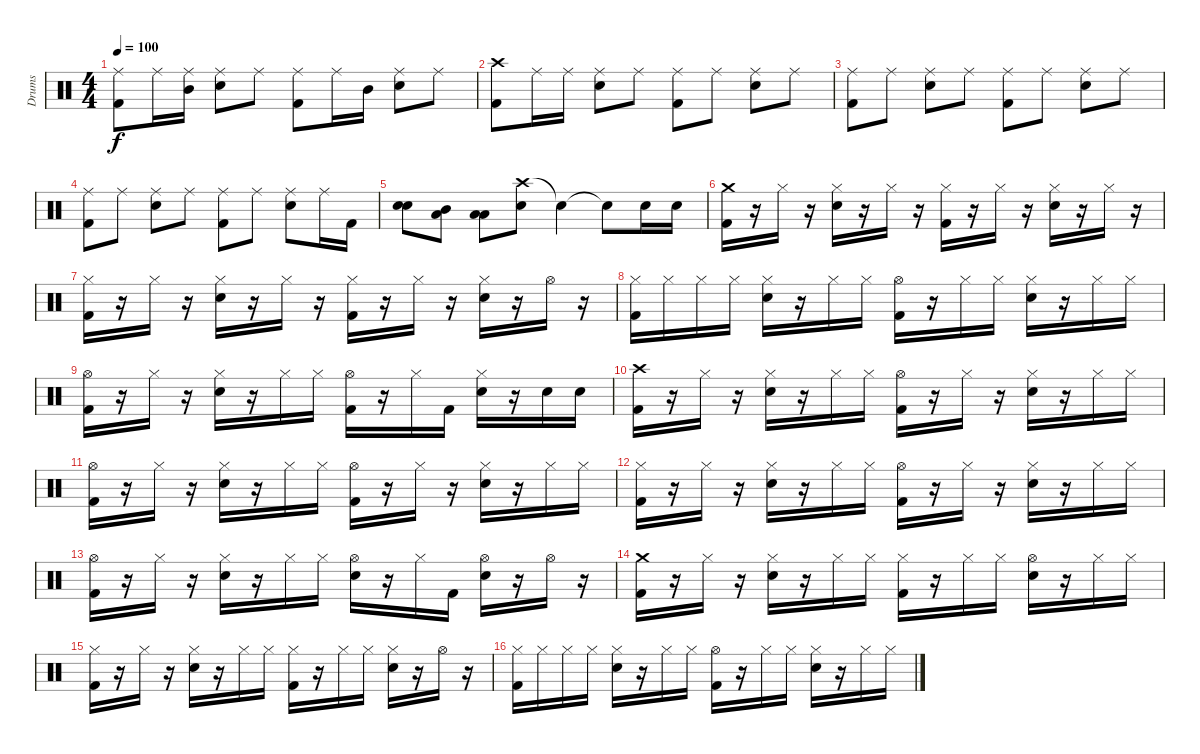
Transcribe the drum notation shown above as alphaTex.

\track ("Drums" "Drums") {instrument percussion}
\staff {score}
\articulation defaults
\ts (4 4)
\tempo 100
\clef neutral
\ks c
("Ride (middle)" "Kick (hit) 2").8{dy f} "Ride (middle)".16 ("Ride (middle)" "Mid Tom (hit)").16 ("Ride (middle)" "Snare (hit) 2").8 "Ride (middle)".8 ("Ride (middle)" "Kick (hit) 2").8 "Ride (middle)".16 "Mid Tom (hit)".16 ("Ride (middle)" "Snare (hit) 2").8 "Ride (middle)".8 |
("Crash high (hit)" "Kick (hit) 2").8 "Ride (middle)".16 "Ride (middle)".16 ("Ride (middle)" "Snare (hit) 2").8 "Ride (middle)".8 ("Ride (middle)" "Kick (hit) 2").8 "Ride (middle)".8 ("Ride (middle)" "Snare (hit) 2").8 "Ride (middle)".8 |
("Ride (middle)" "Kick (hit) 2").8 "Ride (middle)".8 ("Ride (middle)" "Snare (hit) 2").8 "Ride (middle)".8 ("Ride (middle)" "Kick (hit) 2").8 "Ride (middle)".8 ("Ride (middle)" "Snare (hit) 2").8 "Ride (middle)".8 |
("Ride (middle)" "Kick (hit) 2").8 "Ride (middle)".8 ("Ride (middle)" "Snare (hit) 2").8 "Ride (middle)".8 ("Ride (middle)" "Kick (hit) 2").8 "Ride (middle)".8 ("Ride (middle)" "Snare (hit) 2").8 "Ride (middle)".16 "Kick (hit) 2".16 |
("Snare (hit) 2" "Snare (hit) 2").8 ("Low Tom (hit)" "Mid Tom (hit)").8 ("Low Tom (hit)" "Low Tom (hit)").8 ("Crash high (hit)" "Snare (hit) 2").8 "Snare (hit)"{t}.4 "Snare (hit)"{t}.8 "Snare (hit) 2".16 "Snare (hit) 2".16 |
("Crash medium (hit)" "Kick (hit) 2").16 r.16 "Hi-Hat (closed)".16 r.16 ("Hi-Hat (closed)" "Snare (hit) 2").16 r.16 "Hi-Hat (closed)".16 r.16 ("Hi-Hat (closed)" "Kick (hit) 2").16 r.16 "Hi-Hat (closed)".16 r.16 ("Hi-Hat (closed)" "Snare (hit) 2").16 r.16 "Hi-Hat (closed)".16 r.16 |
("Hi-Hat (closed)" "Kick (hit) 2").16 r.16 "Hi-Hat (closed)".16 r.16 ("Hi-Hat (closed)" "Snare (hit) 2").16 r.16 "Hi-Hat (closed)".16 r.16 ("Hi-Hat (closed)" "Kick (hit) 2").16 r.16 "Hi-Hat (closed)".16 r.16 ("Hi-Hat (closed)" "Snare (hit) 2").16 r.16 "Hi-Hat (open)".16 r.16 |
("Hi-Hat (closed)" "Kick (hit) 2").16 "Hi-Hat (closed)".16 "Hi-Hat (closed)".16 "Hi-Hat (closed)".16 ("Hi-Hat (closed)" "Snare (hit) 2").16 r.16 "Hi-Hat (closed)".16 "Hi-Hat (closed)".16 ("Hi-Hat (open)" "Kick (hit) 2").16 r.16 "Hi-Hat (closed)".16 "Hi-Hat (closed)".16 ("Hi-Hat (closed)" "Snare (hit) 2").16 r.16 "Hi-Hat (closed)".16 "Hi-Hat (closed)".16 |
("Hi-Hat (open)" "Kick (hit) 2").16 r.16 "Hi-Hat (closed)".16 r.16 ("Hi-Hat (closed)" "Snare (hit) 2").16 r.16 "Hi-Hat (closed)".16 "Hi-Hat (closed)".16 ("Hi-Hat (open)" "Kick (hit) 2").16 r.16 "Hi-Hat (closed)".16 "Kick (hit) 2".16 ("Hi-Hat (closed)" "Snare (hit) 2").16 r.16 "Snare (hit) 2".16 "Snare (hit) 2".16 |
("Crash high (hit)" "Kick (hit) 2").16 r.16 "Hi-Hat (closed)".16 r.16 ("Hi-Hat (closed)" "Snare (hit) 2").16 r.16 "Hi-Hat (closed)".16 "Hi-Hat (closed)".16 ("Hi-Hat (open)" "Kick (hit) 2").16 r.16 "Hi-Hat (closed)".16 r.16 ("Hi-Hat (closed)" "Snare (hit) 2").16 r.16 "Hi-Hat (closed)".16 "Hi-Hat (closed)".16 |
("Hi-Hat (open)" "Kick (hit) 2").16 r.16 "Hi-Hat (closed)".16 r.16 ("Hi-Hat (closed)" "Snare (hit) 2").16 r.16 "Hi-Hat (closed)".16 "Hi-Hat (closed)".16 ("Hi-Hat (open)" "Kick (hit) 2").16 r.16 "Hi-Hat (closed)".16 r.16 ("Hi-Hat (closed)" "Snare (hit) 2").16 r.16 "Hi-Hat (closed)".16 "Hi-Hat (closed)".16 |
("Hi-Hat (closed)" "Kick (hit) 2").16 r.16 "Hi-Hat (closed)".16 r.16 ("Hi-Hat (closed)" "Snare (hit) 2").16 r.16 "Hi-Hat (closed)".16 "Hi-Hat (closed)".16 ("Hi-Hat (open)" "Kick (hit) 2").16 r.16 "Hi-Hat (closed)".16 r.16 ("Hi-Hat (closed)" "Snare (hit) 2").16 r.16 "Hi-Hat (closed)".16 "Hi-Hat (closed)".16 |
("Hi-Hat (open)" "Kick (hit) 2").16 r.16 "Hi-Hat (closed)".16 r.16 ("Hi-Hat (closed)" "Snare (hit) 2").16 r.16 "Hi-Hat (closed)".16 "Hi-Hat (closed)".16 ("Hi-Hat (open)" "Snare (hit) 2").16 r.16 "Hi-Hat (closed)".16 "Kick (hit) 2".16 ("Hi-Hat (open)" "Snare (hit) 2").16 r.16 "Hi-Hat (open)".16 r.16 |
("Crash medium (hit)" "Kick (hit) 2").16 r.16 "Hi-Hat (closed)".16 r.16 ("Hi-Hat (closed)" "Snare (hit) 2").16 r.16 "Hi-Hat (closed)".16 "Hi-Hat (closed)".16 ("Hi-Hat (closed)" "Kick (hit) 2").16 r.16 "Hi-Hat (closed)".16 "Hi-Hat (closed)".16 ("Hi-Hat (open)" "Snare (hit) 2").16 r.16 "Hi-Hat (closed)".16 "Hi-Hat (closed)".16 |
("Hi-Hat (closed)" "Kick (hit) 2").16 r.16 "Hi-Hat (closed)".16 r.16 ("Hi-Hat (closed)" "Snare (hit) 2").16 r.16 "Hi-Hat (closed)".16 "Hi-Hat (closed)".16 ("Hi-Hat (closed)" "Kick (hit) 2").16 r.16 "Hi-Hat (closed)".16 "Hi-Hat (closed)".16 ("Hi-Hat (closed)" "Snare (hit) 2").16 r.16 "Hi-Hat (open)".16 r.16 |
("Hi-Hat (closed)" "Kick (hit) 2").16 "Hi-Hat (closed)".16 "Hi-Hat (closed)".16 "Hi-Hat (closed)".16 ("Hi-Hat (closed)" "Snare (hit) 2").16 r.16 "Hi-Hat (closed)".16 "Hi-Hat (closed)".16 ("Hi-Hat (open)" "Kick (hit) 2").16 r.16 "Hi-Hat (closed)".16 "Hi-Hat (closed)".16 ("Hi-Hat (closed)" "Snare (hit) 2").16 r.16 "Hi-Hat (closed)".16 "Hi-Hat (closed)".16
